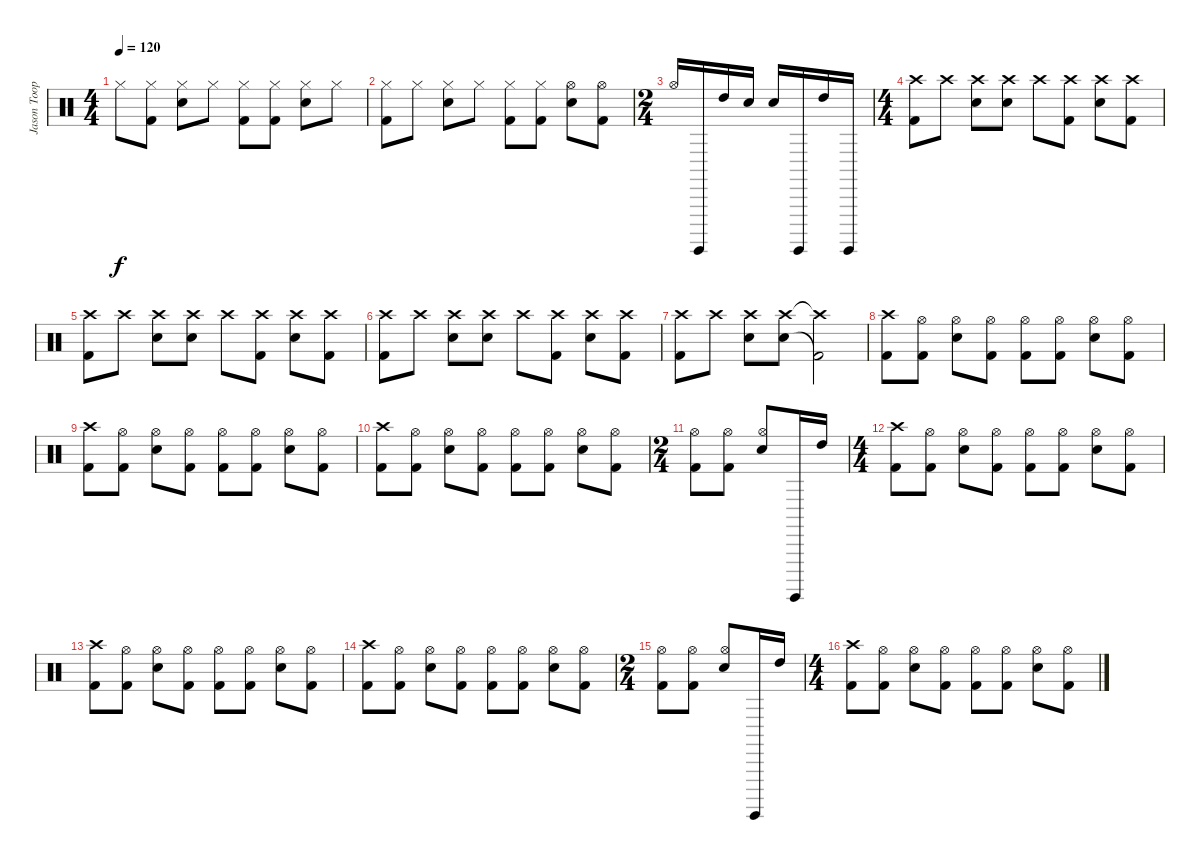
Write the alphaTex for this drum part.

\track ("Jason Toop Cooper" "Jason Toop") {instrument percussion}
\staff {score}
\articulation defaults
\ts (4 4)
\tempo 120
\clef neutral
\ks c "Hi-Hat (closed)".8{dy f}
("Hi-Hat (closed)" "Kick (hit) 2").8 ("Hi-Hat (closed)" "Electric Snare (hit)").8 "Hi-Hat (closed)".8 ("Hi-Hat (closed)" "Kick (hit) 2").8 ("Hi-Hat (closed)" "Kick (hit) 2").8 ("Hi-Hat (closed)" "Electric Snare (hit)").8 "Hi-Hat (closed)".8 |
("Hi-Hat (closed)" "Kick (hit) 2").8 "Hi-Hat (closed)".8 ("Hi-Hat (closed)" "Electric Snare (hit)").8 "Hi-Hat (closed)".8 ("Hi-Hat (closed)" "Kick (hit) 2").8 ("Hi-Hat (closed)" "Kick (hit) 2").8 ("Hi-Hat (open)" "Electric Snare (hit)").8 ("Hi-Hat (open)" "Kick (hit) 2").8 |
\ts (2 4)
"Hi-Hat (open)".16 "Surdo (hit)".16 "High Tom (hit)".16 "Electric Snare (hit)".16 "Electric Snare (hit)".16 "Surdo (hit)".16 "High Tom (hit)".16 "Surdo (hit)".16 |
\ts (4 4)
("Crash high (hit)" "Kick (hit) 2").8 "Crash high (hit)".8 ("Crash high (hit)" "Electric Snare (hit)").8 ("Crash high (hit)" "Electric Snare (hit)").8 "Crash high (hit)".8 ("Crash high (hit)" "Kick (hit) 2").8 ("Crash high (hit)" "Electric Snare (hit)").8 ("Crash high (hit)" "Kick (hit) 2").8 |
("Crash high (hit)" "Kick (hit) 2").8 "Crash high (hit)".8 ("Crash high (hit)" "Electric Snare (hit)").8 ("Crash high (hit)" "Electric Snare (hit)").8 "Crash high (hit)".8 ("Crash high (hit)" "Kick (hit) 2").8 ("Crash high (hit)" "Electric Snare (hit)").8 ("Crash high (hit)" "Kick (hit) 2").8 |
("Crash high (hit)" "Kick (hit) 2").8 "Crash high (hit)".8 ("Crash high (hit)" "Electric Snare (hit)").8 ("Crash high (hit)" "Electric Snare (hit)").8 "Crash high (hit)".8 ("Crash high (hit)" "Kick (hit) 2").8 ("Crash high (hit)" "Electric Snare (hit)").8 ("Crash high (hit)" "Kick (hit) 2").8 |
("Crash high (hit)" "Kick (hit) 2").8 "Crash high (hit)".8 ("Crash high (hit)" "Electric Snare (hit)").8 ("Crash high (hit)" "Electric Snare (hit)").8 ("Crash high (hit)"{t} "Kick (hit) 2"{t}).2 |
("Crash high (hit)" "Kick (hit) 2").8 ("Hi-Hat (open)"{x} "Kick (hit) 2").8 ("Hi-Hat (open)" "Electric Snare (hit)").8 ("Hi-Hat (open)"{x} "Kick (hit) 2").8 ("Hi-Hat (open)" "Kick (hit) 2").8 ("Hi-Hat (open)"{x} "Kick (hit) 2").8 ("Hi-Hat (open)" "Electric Snare (hit)").8 ("Hi-Hat (open)"{x} "Kick (hit) 2").8 |
("Crash high (hit)" "Kick (hit) 2").8 ("Hi-Hat (open)"{x} "Kick (hit) 2").8 ("Hi-Hat (open)" "Electric Snare (hit)").8 ("Hi-Hat (open)"{x} "Kick (hit) 2").8 ("Hi-Hat (open)" "Kick (hit) 2").8 ("Hi-Hat (open)"{x} "Kick (hit) 2").8 ("Hi-Hat (open)" "Electric Snare (hit)").8 ("Hi-Hat (open)"{x} "Kick (hit) 2").8 |
("Crash high (hit)" "Kick (hit) 2").8 ("Hi-Hat (open)"{x} "Kick (hit) 2").8 ("Hi-Hat (open)" "Electric Snare (hit)").8 ("Hi-Hat (open)"{x} "Kick (hit) 2").8 ("Hi-Hat (open)" "Kick (hit) 2").8 ("Hi-Hat (open)"{x} "Kick (hit) 2").8 ("Hi-Hat (open)" "Electric Snare (hit)").8 ("Hi-Hat (open)"{x} "Kick (hit) 2").8 |
\ts (2 4)
("Hi-Hat (open)" "Kick (hit) 2").8 ("Hi-Hat (open)"{x} "Kick (hit) 2").8 ("Hi-Hat (open)" "Electric Snare (hit)").8 "Surdo (hit)".16 "High Tom (hit)".16 |
\ts (4 4)
("Crash high (hit)" "Kick (hit) 2").8 ("Hi-Hat (open)"{x} "Kick (hit) 2").8 ("Hi-Hat (open)" "Electric Snare (hit)").8 ("Hi-Hat (open)"{x} "Kick (hit) 2").8 ("Hi-Hat (open)" "Kick (hit) 2").8 ("Hi-Hat (open)"{x} "Kick (hit) 2").8 ("Hi-Hat (open)" "Electric Snare (hit)").8 ("Hi-Hat (open)"{x} "Kick (hit) 2").8 |
("Crash high (hit)" "Kick (hit) 2").8 ("Hi-Hat (open)"{x} "Kick (hit) 2").8 ("Hi-Hat (open)" "Electric Snare (hit)").8 ("Hi-Hat (open)"{x} "Kick (hit) 2").8 ("Hi-Hat (open)" "Kick (hit) 2").8 ("Hi-Hat (open)"{x} "Kick (hit) 2").8 ("Hi-Hat (open)" "Electric Snare (hit)").8 ("Hi-Hat (open)"{x} "Kick (hit) 2").8 |
("Crash high (hit)" "Kick (hit) 2").8 ("Hi-Hat (open)"{x} "Kick (hit) 2").8 ("Hi-Hat (open)" "Electric Snare (hit)").8 ("Hi-Hat (open)"{x} "Kick (hit) 2").8 ("Hi-Hat (open)" "Kick (hit) 2").8 ("Hi-Hat (open)"{x} "Kick (hit) 2").8 ("Hi-Hat (open)" "Electric Snare (hit)").8 ("Hi-Hat (open)"{x} "Kick (hit) 2").8 |
\ts (2 4)
("Hi-Hat (open)" "Kick (hit) 2").8 ("Hi-Hat (open)"{x} "Kick (hit) 2").8 ("Hi-Hat (open)" "Electric Snare (hit)").8 "Surdo (hit)".16 "High Tom (hit)".16 |
\ts (4 4)
("Crash high (hit)" "Kick (hit) 2").8 ("Hi-Hat (open)"{x} "Kick (hit) 2").8 ("Hi-Hat (open)" "Electric Snare (hit)").8 ("Hi-Hat (open)"{x} "Kick (hit) 2").8 ("Hi-Hat (open)" "Kick (hit) 2").8 ("Hi-Hat (open)"{x} "Kick (hit) 2").8 ("Hi-Hat (open)" "Electric Snare (hit)").8 ("Hi-Hat (open)"{x} "Kick (hit) 2").8
